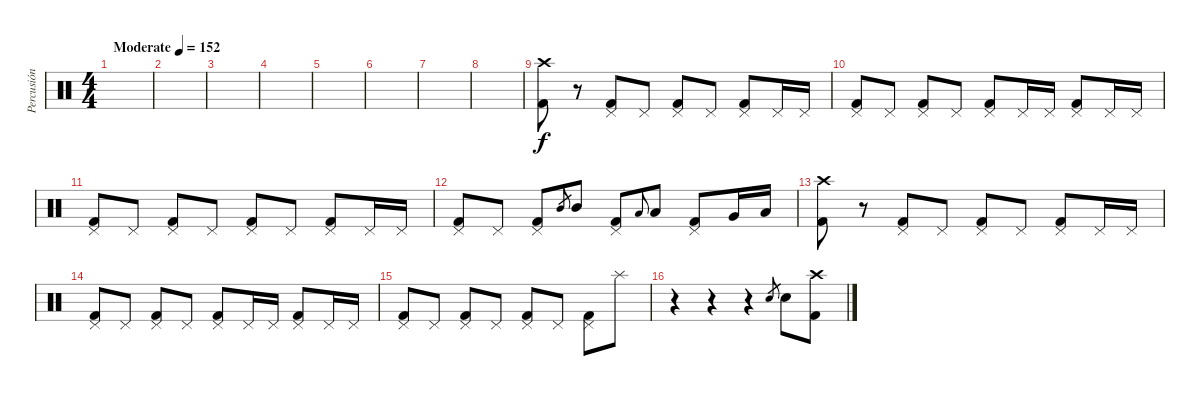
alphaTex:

\track ("Percusión" "Percusión") {instrument percussion}
\staff {score}
\articulation defaults
\ts (4 4)
\tempo (152 "Moderate")
\clef neutral
\ks c
|
|
|
|
|
|
|
|
("Kick (hit) 2" "Crash high (hit)").8 r.8 ("Kick (hit) 2" "Pedal Hi-Hat (hit)").8 "Pedal Hi-Hat (hit)".8 ("Kick (hit) 2" "Pedal Hi-Hat (hit)").8 "Pedal Hi-Hat (hit)".8 ("Kick (hit) 2" "Pedal Hi-Hat (hit)").8 "Pedal Hi-Hat (hit)".16 "Pedal Hi-Hat (hit)".16 |
("Kick (hit) 2" "Pedal Hi-Hat (hit)").8 "Pedal Hi-Hat (hit)".8 ("Kick (hit) 2" "Pedal Hi-Hat (hit)").8 "Pedal Hi-Hat (hit)".8 ("Kick (hit) 2" "Pedal Hi-Hat (hit)").8 "Pedal Hi-Hat (hit)".16 "Pedal Hi-Hat (hit)".16 ("Kick (hit) 2" "Pedal Hi-Hat (hit)").8 "Pedal Hi-Hat (hit)".16 "Pedal Hi-Hat (hit)".16 |
("Kick (hit) 2" "Pedal Hi-Hat (hit)").8 "Pedal Hi-Hat (hit)".8 ("Kick (hit) 2" "Pedal Hi-Hat (hit)").8 "Pedal Hi-Hat (hit)".8 ("Kick (hit) 2" "Pedal Hi-Hat (hit)").8 "Pedal Hi-Hat (hit)".8 ("Kick (hit) 2" "Pedal Hi-Hat (hit)").8 "Pedal Hi-Hat (hit)".16 "Pedal Hi-Hat (hit)".16 |
("Kick (hit) 2" "Pedal Hi-Hat (hit)").8 "Pedal Hi-Hat (hit)".8 ("Kick (hit) 2" "Pedal Hi-Hat (hit)").8 "Mid Tom (hit)".8{gr} "Mid Tom (hit)".8 ("Kick (hit) 2" "Pedal Hi-Hat (hit)").8 "Low Tom (hit)".8{gr onbeat} "Low Tom (hit)".8 ("Kick (hit) 2" "Pedal Hi-Hat (hit)").8 "Very Low Tom (hit)".16 "Low Floor Tom (hit)".16 |
("Kick (hit) 2" "Crash high (hit)").8 r.8 ("Kick (hit) 2" "Pedal Hi-Hat (hit)").8 "Pedal Hi-Hat (hit)".8 ("Kick (hit) 2" "Pedal Hi-Hat (hit)").8 "Pedal Hi-Hat (hit)".8 ("Kick (hit) 2" "Pedal Hi-Hat (hit)").8 "Pedal Hi-Hat (hit)".16 "Pedal Hi-Hat (hit)".16 |
("Kick (hit) 2" "Pedal Hi-Hat (hit)").8 "Pedal Hi-Hat (hit)".8 ("Kick (hit) 2" "Pedal Hi-Hat (hit)").8 "Pedal Hi-Hat (hit)".8 ("Kick (hit) 2" "Pedal Hi-Hat (hit)").8 "Pedal Hi-Hat (hit)".16 "Pedal Hi-Hat (hit)".16 ("Kick (hit) 2" "Pedal Hi-Hat (hit)").8 "Pedal Hi-Hat (hit)".16 "Pedal Hi-Hat (hit)".16 |
("Kick (hit) 2" "Pedal Hi-Hat (hit)").8 "Pedal Hi-Hat (hit)".8 ("Kick (hit) 2" "Pedal Hi-Hat (hit)").8 "Pedal Hi-Hat (hit)".8 ("Kick (hit) 2" "Pedal Hi-Hat (hit)").8 "Pedal Hi-Hat (hit)".8 ("Kick (hit) 2" "Pedal Hi-Hat (hit)").8 "Splash (hit)".8 |
r.4 r.4 r.4 "Snare (hit) 2".8{gr} "Snare (hit) 2".8 ("Kick (hit) 2" "Crash high (hit)").8
